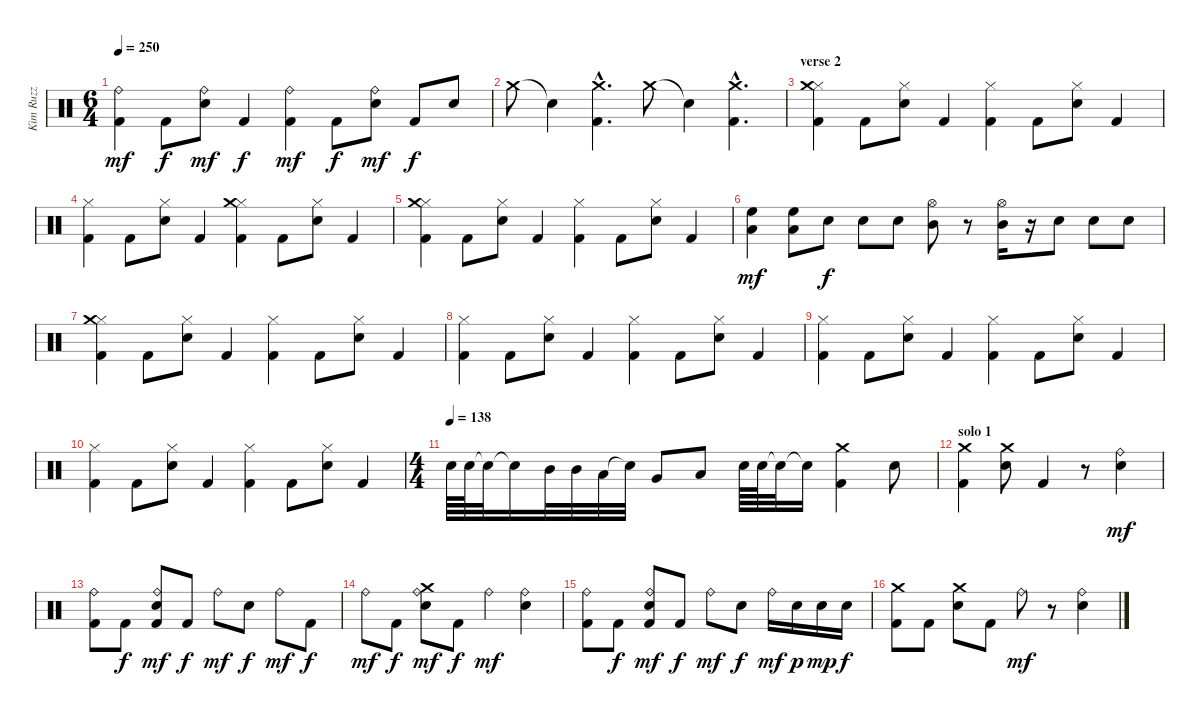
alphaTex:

\track ("Kim Ruzz" "Kim Ruzz") {instrument percussion}
\staff {score}
\articulation defaults
\ts (6 4)
\tempo 250
\clef neutral
\ks c
("Kick (hit) 2" "Ride (bell)").4{dy mf} "Kick (hit) 2".8{dy f} ("Ride (bell)" "Snare (hit) 2").8{dy mf} "Kick (hit) 2".4{dy f} ("Kick (hit) 2" "Ride (bell)").4{dy mf} "Kick (hit) 2".8{dy f} ("Ride (bell)" "Snare (hit) 2").8{dy mf} "Kick (hit) 2".8{dy f} "Snare (hit) 2".8 |
"Crash medium (hit)".8 "Snare (hit)"{t}.4 ("Kick (hit) 2"{hac} "Crash medium (hit)"{hac}).4{d} "Crash medium (hit)".8 "Snare (hit)"{t}.4 ("Kick (hit) 2"{hac} "Crash medium (hit)"{hac}).4{d} |
\section ("" "verse 2")
("Kick (hit) 2" "Hi-Hat (closed)" "Crash medium (hit)").4 "Kick (hit) 2".8 ("Hi-Hat (closed)" "Snare (hit) 2").8 "Kick (hit) 2".4 ("Kick (hit) 2" "Hi-Hat (closed)").4 "Kick (hit) 2".8 ("Hi-Hat (closed)" "Snare (hit) 2").8 "Kick (hit) 2".4 |
("Kick (hit) 2" "Hi-Hat (closed)").4 "Kick (hit) 2".8 ("Hi-Hat (closed)" "Snare (hit) 2").8 "Kick (hit) 2".4 ("Kick (hit) 2" "Hi-Hat (closed)" "Crash medium (hit)").4 "Kick (hit) 2".8 ("Hi-Hat (closed)" "Snare (hit) 2").8 "Kick (hit) 2".4 |
("Kick (hit) 2" "Hi-Hat (closed)" "Crash medium (hit)").4 "Kick (hit) 2".8 ("Hi-Hat (closed)" "Snare (hit) 2").8 "Kick (hit) 2".4 ("Kick (hit) 2" "Hi-Hat (closed)").4 "Kick (hit) 2".8 ("Hi-Hat (closed)" "Snare (hit) 2").8 "Kick (hit) 2".4 |
("Low Tom (hit)" "High Floor Tom (hit)").4{dy mf} ("Low Tom (hit)" "High Floor Tom (hit)").8 "Snare (hit) 2".8{dy f} "Snare (hit) 2".8 "Snare (hit) 2".8 ("Mid Tom (hit)" "Hi-Hat (open)").8 r.8 ("Mid Tom (hit)" "Hi-Hat (open)").16 r.16 "Snare (hit) 2".8 "Snare (hit) 2".8 "Snare (hit) 2".8 |
("Kick (hit) 2" "Hi-Hat (closed)" "Crash medium (hit)").4 "Kick (hit) 2".8 ("Hi-Hat (closed)" "Snare (hit) 2").8 "Kick (hit) 2".4 ("Kick (hit) 2" "Hi-Hat (closed)").4 "Kick (hit) 2".8 ("Hi-Hat (closed)" "Snare (hit) 2").8 "Kick (hit) 2".4 |
("Kick (hit) 2" "Hi-Hat (closed)").4 "Kick (hit) 2".8 ("Hi-Hat (closed)" "Snare (hit) 2").8 "Kick (hit) 2".4 ("Kick (hit) 2" "Hi-Hat (closed)").4 "Kick (hit) 2".8 ("Hi-Hat (closed)" "Snare (hit) 2").8 "Kick (hit) 2".4 |
("Kick (hit) 2" "Hi-Hat (closed)").4 "Kick (hit) 2".8 ("Hi-Hat (closed)" "Snare (hit) 2").8 "Kick (hit) 2".4 ("Kick (hit) 2" "Hi-Hat (closed)").4 "Kick (hit) 2".8 ("Hi-Hat (closed)" "Snare (hit) 2").8 "Kick (hit) 2".4 |
("Kick (hit) 2" "Hi-Hat (closed)").4 "Kick (hit) 2".8 ("Hi-Hat (closed)" "Snare (hit) 2").8 "Kick (hit) 2".4 ("Kick (hit) 2" "Hi-Hat (closed)").4 "Kick (hit) 2".8 ("Hi-Hat (closed)" "Snare (hit) 2").8 "Kick (hit) 2".4 |
\ts (4 4)
\tempo (138)
"Snare (hit) 2".64 "Snare (hit) 2".64 "Snare (hit)"{t}.32 "Snare (hit)"{t}.16 "Mid Tom (hit)".32 "Mid Tom (hit)".32 "Low Tom (hit)".32 "Snare (hit)"{t}.32 "Very Low Tom (hit)".8 "Low Floor Tom (hit)".8 "Snare (hit) 2".64 "Snare (hit) 2".64 "Snare (hit)"{t}.32 "Snare (hit)"{t}.16 ("Kick (hit) 2" "Crash medium (hit)").4 "Snare (hit) 2".8 |
\section ("" "solo 1")
("Kick (hit) 2" "Crash medium (hit)").4 ("Crash medium (hit)" "Snare (hit) 2").8 "Kick (hit) 2".4 r.8 ("Ride (bell)" "Snare (hit) 2").4{dy mf} |
("Kick (hit) 2" "Ride (bell)").8 "Kick (hit) 2".8{dy f} ("Kick (hit) 2" "Ride (bell)" "Snare (hit) 2").8{dy mf} "Kick (hit) 2".8{dy f} "Ride (bell)".8{dy mf} "Snare (hit) 2".8{dy f} "Ride (bell)".8{dy mf} "Kick (hit) 2".8{dy f} |
"Ride (bell)".8{dy mf} "Kick (hit) 2".8{dy f} ("Ride (bell)" "Crash medium (hit)" "Snare (hit) 2").8{dy mf} "Kick (hit) 2".8{dy f} "Ride (bell)".4{dy mf} ("Ride (bell)" "Snare (hit) 2").4 |
("Kick (hit) 2" "Ride (bell)").8 "Kick (hit) 2".8{dy f} ("Kick (hit) 2" "Ride (bell)" "Snare (hit) 2").8{dy mf} "Kick (hit) 2".8{dy f} "Ride (bell)".8{dy mf} "Snare (hit) 2".8{dy f} "Ride (bell)".16{dy mf} "Snare (hit) 2".16{dy p} "Snare (hit) 2".16{dy mp} "Snare (hit) 2".16{dy f} |
("Kick (hit) 2" "Crash medium (hit)").8 "Kick (hit) 2".8 ("Crash medium (hit)" "Snare (hit) 2").8 "Kick (hit) 2".8 "Ride (bell)".8{dy mf} r.8 ("Ride (bell)" "Snare (hit) 2").4
